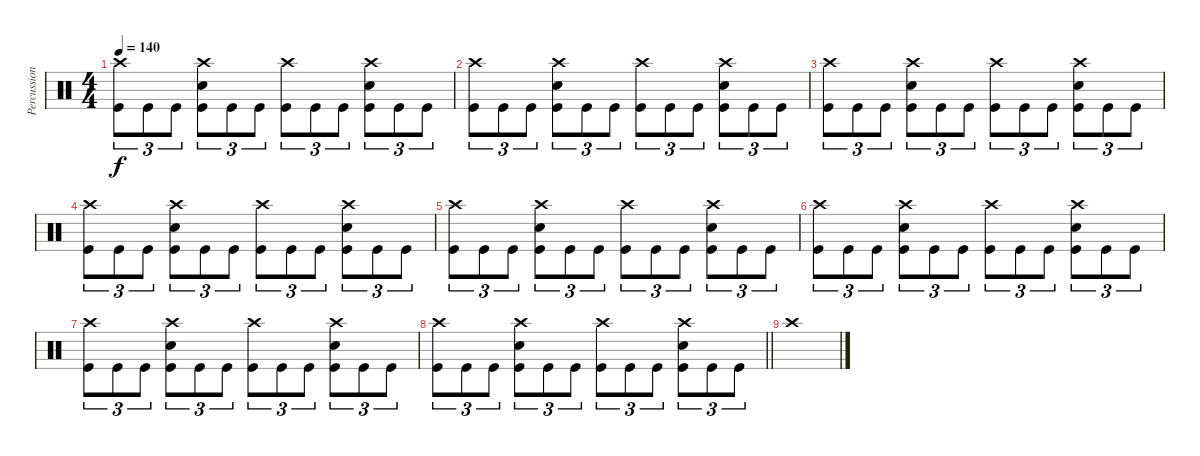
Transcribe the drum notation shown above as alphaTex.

\track ("Percussion" "Percussion") {instrument percussion}
\staff
\articulation defaults
\ts (4 4)
\tempo 140
\clef neutral
\ks c
("Crash high (hit)" "Kick (hit)").8{tu (3 2) dy f} "Kick (hit)".8{tu (3 2)} "Kick (hit)".8{tu (3 2)} ("Crash high (hit)" "Snare (hit) 2" "Kick (hit)").8{tu (3 2)} "Kick (hit)".8{tu (3 2)} "Kick (hit)".8{tu (3 2)} ("Crash high (hit)" "Kick (hit)").8{tu (3 2)} "Kick (hit)".8{tu (3 2)} "Kick (hit)".8{tu (3 2)} ("Crash high (hit)" "Snare (hit) 2" "Kick (hit)").8{tu (3 2)} "Kick (hit)".8{tu (3 2)} "Kick (hit)".8{tu (3 2)} |
("Crash high (hit)" "Kick (hit)").8{tu (3 2)} "Kick (hit)".8{tu (3 2)} "Kick (hit)".8{tu (3 2)} ("Crash high (hit)" "Snare (hit) 2" "Kick (hit)").8{tu (3 2)} "Kick (hit)".8{tu (3 2)} "Kick (hit)".8{tu (3 2)} ("Crash high (hit)" "Kick (hit)").8{tu (3 2)} "Kick (hit)".8{tu (3 2)} "Kick (hit)".8{tu (3 2)} ("Crash high (hit)" "Snare (hit) 2" "Kick (hit)").8{tu (3 2)} "Kick (hit)".8{tu (3 2)} "Kick (hit)".8{tu (3 2)} |
("Crash high (hit)" "Kick (hit)").8{tu (3 2)} "Kick (hit)".8{tu (3 2)} "Kick (hit)".8{tu (3 2)} ("Crash high (hit)" "Snare (hit) 2" "Kick (hit)").8{tu (3 2)} "Kick (hit)".8{tu (3 2)} "Kick (hit)".8{tu (3 2)} ("Crash high (hit)" "Kick (hit)").8{tu (3 2)} "Kick (hit)".8{tu (3 2)} "Kick (hit)".8{tu (3 2)} ("Crash high (hit)" "Snare (hit) 2" "Kick (hit)").8{tu (3 2)} "Kick (hit)".8{tu (3 2)} "Kick (hit)".8{tu (3 2)} |
("Crash high (hit)" "Kick (hit)").8{tu (3 2)} "Kick (hit)".8{tu (3 2)} "Kick (hit)".8{tu (3 2)} ("Crash high (hit)" "Snare (hit) 2" "Kick (hit)").8{tu (3 2)} "Kick (hit)".8{tu (3 2)} "Kick (hit)".8{tu (3 2)} ("Crash high (hit)" "Kick (hit)").8{tu (3 2)} "Kick (hit)".8{tu (3 2)} "Kick (hit)".8{tu (3 2)} ("Crash high (hit)" "Snare (hit) 2" "Kick (hit)").8{tu (3 2)} "Kick (hit)".8{tu (3 2)} "Kick (hit)".8{tu (3 2)} |
("Crash high (hit)" "Kick (hit)").8{tu (3 2)} "Kick (hit)".8{tu (3 2)} "Kick (hit)".8{tu (3 2)} ("Crash high (hit)" "Snare (hit) 2" "Kick (hit)").8{tu (3 2)} "Kick (hit)".8{tu (3 2)} "Kick (hit)".8{tu (3 2)} ("Crash high (hit)" "Kick (hit)").8{tu (3 2)} "Kick (hit)".8{tu (3 2)} "Kick (hit)".8{tu (3 2)} ("Crash high (hit)" "Snare (hit) 2" "Kick (hit)").8{tu (3 2)} "Kick (hit)".8{tu (3 2)} "Kick (hit)".8{tu (3 2)} |
("Crash high (hit)" "Kick (hit)").8{tu (3 2)} "Kick (hit)".8{tu (3 2)} "Kick (hit)".8{tu (3 2)} ("Crash high (hit)" "Snare (hit) 2" "Kick (hit)").8{tu (3 2)} "Kick (hit)".8{tu (3 2)} "Kick (hit)".8{tu (3 2)} ("Crash high (hit)" "Kick (hit)").8{tu (3 2)} "Kick (hit)".8{tu (3 2)} "Kick (hit)".8{tu (3 2)} ("Crash high (hit)" "Snare (hit) 2" "Kick (hit)").8{tu (3 2)} "Kick (hit)".8{tu (3 2)} "Kick (hit)".8{tu (3 2)} |
("Crash high (hit)" "Kick (hit)").8{tu (3 2)} "Kick (hit)".8{tu (3 2)} "Kick (hit)".8{tu (3 2)} ("Crash high (hit)" "Snare (hit) 2" "Kick (hit)").8{tu (3 2)} "Kick (hit)".8{tu (3 2)} "Kick (hit)".8{tu (3 2)} ("Crash high (hit)" "Kick (hit)").8{tu (3 2)} "Kick (hit)".8{tu (3 2)} "Kick (hit)".8{tu (3 2)} ("Crash high (hit)" "Snare (hit) 2" "Kick (hit)").8{tu (3 2)} "Kick (hit)".8{tu (3 2)} "Kick (hit)".8{tu (3 2)} |
\barLineRight lightlight
("Crash high (hit)" "Kick (hit)").8{tu (3 2)} "Kick (hit)".8{tu (3 2)} "Kick (hit)".8{tu (3 2)} ("Crash high (hit)" "Snare (hit) 2" "Kick (hit)").8{tu (3 2)} "Kick (hit)".8{tu (3 2)} "Kick (hit)".8{tu (3 2)} ("Crash high (hit)" "Kick (hit)").8{tu (3 2)} "Kick (hit)".8{tu (3 2)} "Kick (hit)".8{tu (3 2)} ("Crash high (hit)" "Snare (hit) 2" "Kick (hit)").8{tu (3 2)} "Kick (hit)".8{tu (3 2)} "Kick (hit)".8{tu (3 2)} |
"Crash high (hit)".1
